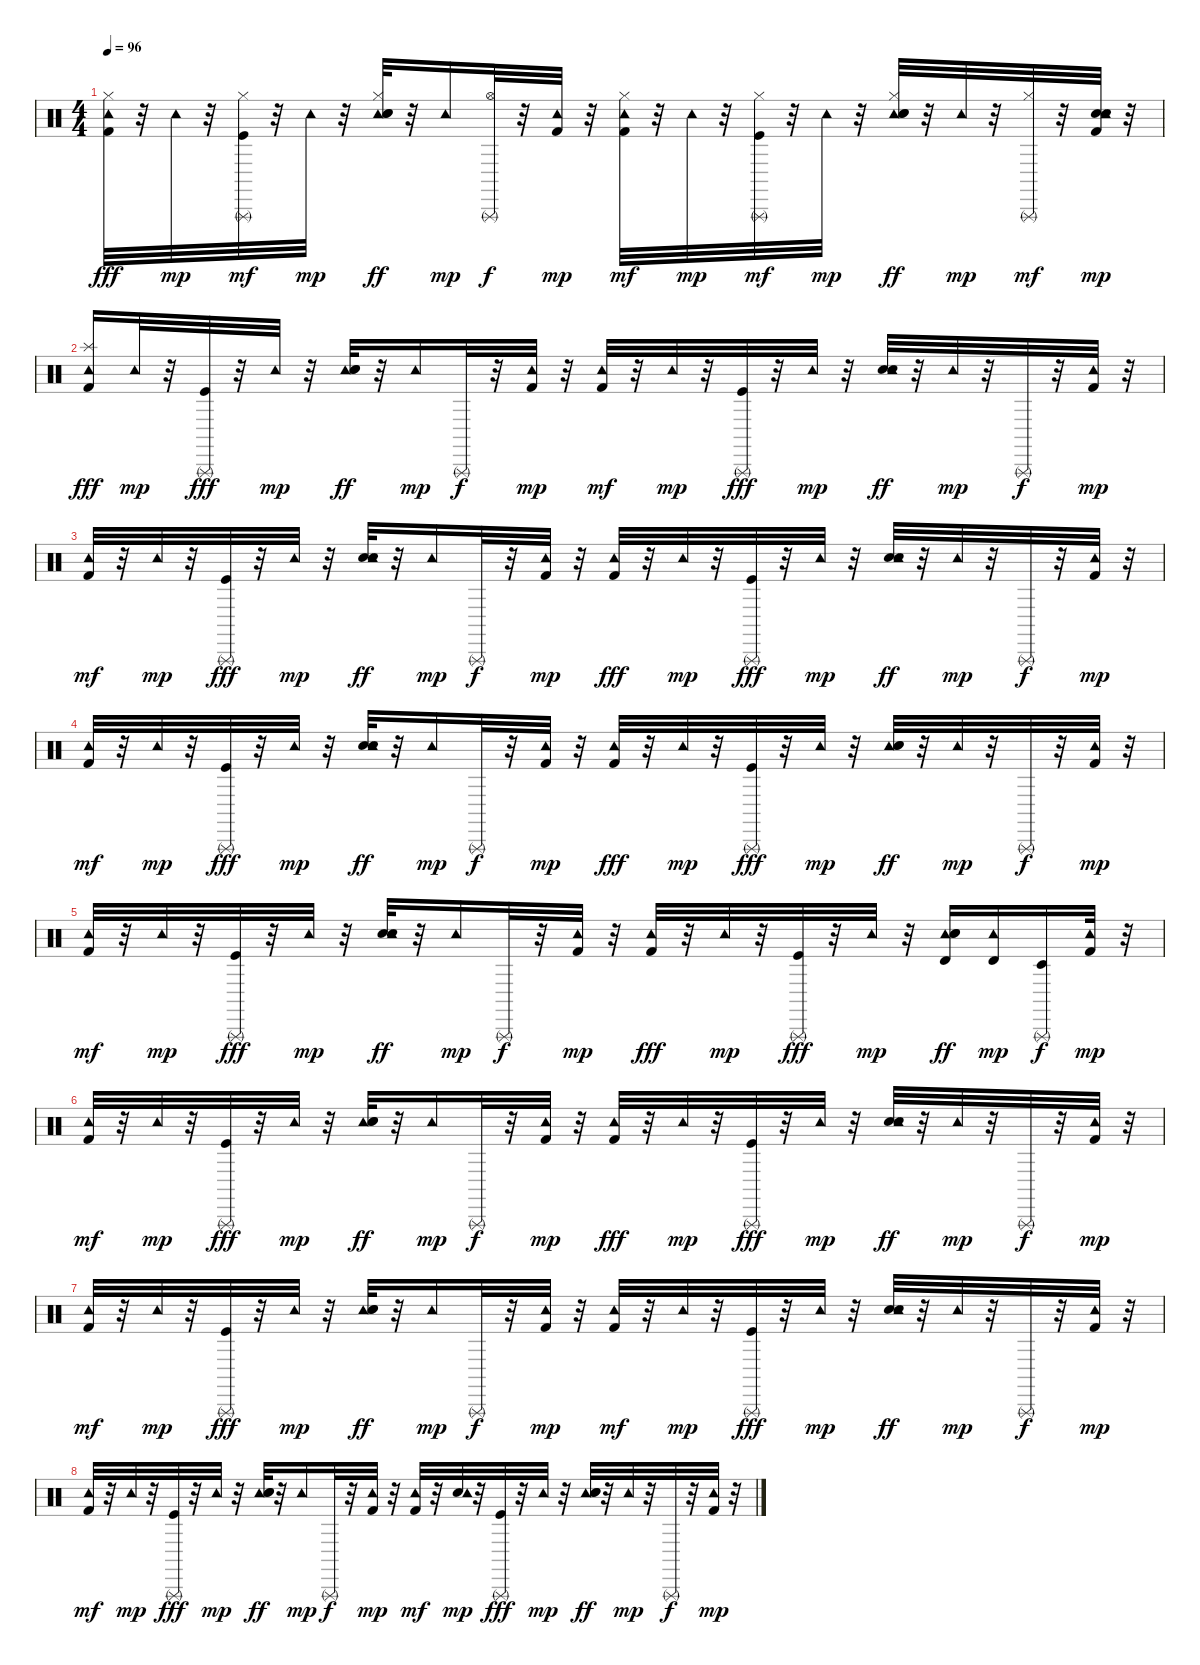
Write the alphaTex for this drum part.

\track "" {instrument percussion}
\staff {score}
\articulation defaults
\ts (4 4)
\tempo 96
\clef neutral
\ks c
("Hi-Hat (closed)" "Tambourine (hit)" "Kick (hit) 2").32{dy fff} r.32 "Tambourine (hit)".32{dy mp} r.32 ("Triangle (rnute)" "Kick (hit)" "Hi-Hat (closed)").32{dy mf} r.32 "Tambourine (hit)".32{dy mp} r.32 ("Tambourine (hit)" "Hi-Hat (closed)" "Electric Snare (hit)" "Hand Clap (hit)").32{dy ff} r.32 "Tambourine (hit)".16{dy mp} ("Hi-Hat (open)" "Triangle (rnute)").32{dy f} r.32 ("Kick (hit) 2" "Tambourine (hit)").32{dy mp} r.32 ("Kick (hit) 2" "Tambourine (hit)" "Hi-Hat (closed)").32{dy mf} r.32 "Tambourine (hit)".32{dy mp} r.32 ("Kick (hit)" "Triangle (rnute)" "Hi-Hat (closed)").32{dy mf} r.32 "Tambourine (hit)".32{dy mp} r.32 ("Tambourine (hit)" "Electric Snare (hit)" "Hi-Hat (closed)" "Hand Clap (hit)").32{dy ff} r.32 "Tambourine (hit)".32{dy mp} r.32 ("Hi-Hat (closed)" "Triangle (rnute)").32{dy mf} r.32 ("Kick (hit) 2" "Electric Snare (hit)" "Hand Clap (hit)" "Tambourine (hit)").32{dy mp} r.32 |
("Tambourine (hit)" "Kick (hit) 2" "Splash (hit)").16{dy fff} "Tambourine (hit)".32{dy mp} r.32 ("Kick (hit)" "Triangle (rnute)").32{dy fff} r.32 "Tambourine (hit)".32{dy mp} r.32 ("Tambourine (hit)" "Electric Snare (hit)" "Hand Clap (hit)").32{dy ff} r.32 "Tambourine (hit)".16{dy mp} "Triangle (rnute)".32{dy f} r.32 ("Tambourine (hit)" "Kick (hit) 2").32{dy mp} r.32 ("Kick (hit) 2" "Tambourine (hit)").32{dy mf} r.32 "Tambourine (hit)".32{dy mp} r.32 ("Triangle (rnute)" "Kick (hit)").32{dy fff} r.32 "Tambourine (hit)".32{dy mp} r.32 ("Electric Snare (hit)" "Tambourine (hit)" "Hand Clap (hit)").32{dy ff} r.32 "Tambourine (hit)".32{dy mp} r.32 "Triangle (rnute)".32{dy f} r.32 ("Tambourine (hit)" "Kick (hit) 2").32{dy mp} r.32 |
("Kick (hit) 2" "Tambourine (hit)").32{dy mf} r.32 "Tambourine (hit)".32{dy mp} r.32 ("Triangle (rnute)" "Kick (hit)").32{dy fff} r.32 "Tambourine (hit)".32{dy mp} r.32 ("Electric Snare (hit)" "Tambourine (hit)" "Hand Clap (hit)").32{dy ff} r.32 "Tambourine (hit)".16{dy mp} "Triangle (rnute)".32{dy f} r.32 ("Kick (hit) 2" "Tambourine (hit)").32{dy mp} r.32 ("Tambourine (hit)" "Kick (hit) 2").32{dy fff} r.32 "Tambourine (hit)".32{dy mp} r.32 ("Triangle (rnute)" "Kick (hit)").32{dy fff} r.32 "Tambourine (hit)".32{dy mp} r.32 ("Electric Snare (hit)" "Tambourine (hit)" "Hand Clap (hit)").32{dy ff} r.32 "Tambourine (hit)".32{dy mp} r.32 "Triangle (rnute)".32{dy f} r.32 ("Kick (hit) 2" "Tambourine (hit)").32{dy mp} r.32 |
("Kick (hit) 2" "Tambourine (hit)").32{dy mf} r.32 "Tambourine (hit)".32{dy mp} r.32 ("Kick (hit)" "Triangle (rnute)").32{dy fff} r.32 "Tambourine (hit)".32{dy mp} r.32 ("Electric Snare (hit)" "Tambourine (hit)" "Hand Clap (hit)").32{dy ff} r.32 "Tambourine (hit)".16{dy mp} "Triangle (rnute)".32{dy f} r.32 ("Kick (hit) 2" "Tambourine (hit)").32{dy mp} r.32 ("Tambourine (hit)" "Kick (hit) 2").32{dy fff} r.32 "Tambourine (hit)".32{dy mp} r.32 ("Kick (hit)" "Triangle (rnute)").32{dy fff} r.32 "Tambourine (hit)".32{dy mp} r.32 ("Tambourine (hit)" "Electric Snare (hit)" "Hand Clap (hit)").32{dy ff} r.32 "Tambourine (hit)".32{dy mp} r.32 "Triangle (rnute)".32{dy f} r.32 ("Kick (hit) 2" "Tambourine (hit)").32{dy mp} r.32 |
("Kick (hit) 2" "Tambourine (hit)").32{dy mf} r.32 "Tambourine (hit)".32{dy mp} r.32 ("Kick (hit)" "Triangle (rnute)").32{dy fff} r.32 "Tambourine (hit)".32{dy mp} r.32 ("Electric Snare (hit)" "Tambourine (hit)" "Hand Clap (hit)").32{dy ff} r.32 "Tambourine (hit)".16{dy mp} "Triangle (rnute)".32{dy f} r.32 ("Kick (hit) 2" "Tambourine (hit)").32{dy mp} r.32 ("Tambourine (hit)" "Kick (hit) 2").32{dy fff} r.32 "Tambourine (hit)".32{dy mp} r.32 ("Triangle (rnute)" "Kick (hit)").32{dy fff} r.32 "Tambourine (hit)".32{dy mp} r.32 ("Tambourine (hit)" "Timbale high (hit)" "Electric Snare (hit)" "Hand Clap (hit)").16{dy ff} ("Timbale high (hit)" "Tambourine (hit)").16{dy mp} ("Timbale low (hit)" "Triangle (rnute)").16{dy f} ("Kick (hit) 2" "Tambourine (hit)").32{dy mp} r.32 |
("Kick (hit) 2" "Tambourine (hit)").32{dy mf} r.32 "Tambourine (hit)".32{dy mp} r.32 ("Kick (hit)" "Triangle (rnute)").32{dy fff} r.32 "Tambourine (hit)".32{dy mp} r.32 ("Tambourine (hit)" "Electric Snare (hit)" "Hand Clap (hit)").32{dy ff} r.32 "Tambourine (hit)".16{dy mp} "Triangle (rnute)".32{dy f} r.32 ("Tambourine (hit)" "Kick (hit) 2").32{dy mp} r.32 ("Tambourine (hit)" "Kick (hit) 2").32{dy fff} r.32 "Tambourine (hit)".32{dy mp} r.32 ("Kick (hit)" "Triangle (rnute)").32{dy fff} r.32 "Tambourine (hit)".32{dy mp} r.32 ("Electric Snare (hit)" "Tambourine (hit)" "Hand Clap (hit)").32{dy ff} r.32 "Tambourine (hit)".32{dy mp} r.32 "Triangle (rnute)".32{dy f} r.32 ("Kick (hit) 2" "Tambourine (hit)").32{dy mp} r.32 |
("Kick (hit) 2" "Tambourine (hit)").32{dy mf} r.32 "Tambourine (hit)".32{dy mp} r.32 ("Kick (hit)" "Triangle (rnute)").32{dy fff} r.32 "Tambourine (hit)".32{dy mp} r.32 ("Tambourine (hit)" "Electric Snare (hit)" "Hand Clap (hit)").32{dy ff} r.32 "Tambourine (hit)".16{dy mp} "Triangle (rnute)".32{dy f} r.32 ("Tambourine (hit)" "Kick (hit) 2").32{dy mp} r.32 ("Kick (hit) 2" "Tambourine (hit)").32{dy mf} r.32 "Tambourine (hit)".32{dy mp} r.32 ("Triangle (rnute)" "Kick (hit)").32{dy fff} r.32 "Tambourine (hit)".32{dy mp} r.32 ("Electric Snare (hit)" "Tambourine (hit)" "Hand Clap (hit)").32{dy ff} r.32 "Tambourine (hit)".32{dy mp} r.32 "Triangle (rnute)".32{dy f} r.32 ("Tambourine (hit)" "Kick (hit) 2").32{dy mp} r.32 |
("Kick (hit) 2" "Tambourine (hit)").32{dy mf} r.32 "Tambourine (hit)".32{dy mp} r.32 ("Kick (hit)" "Triangle (rnute)").32{dy fff} r.32 "Tambourine (hit)".32{dy mp} r.32 ("Tambourine (hit)" "Electric Snare (hit)" "Hand Clap (hit)").32{dy ff} r.32 "Tambourine (hit)".16{dy mp} "Triangle (rnute)".32{dy f} r.32 ("Tambourine (hit)" "Kick (hit) 2").32{dy mp} r.32 ("Kick (hit) 2" "Tambourine (hit)").32{dy mf} r.32 ("Electric Snare (hit)" "Tambourine (hit)").32{dy mp} r.32 ("Kick (hit)" "Triangle (rnute)").32{dy fff} r.32 "Tambourine (hit)".32{dy mp} r.32 ("Tambourine (hit)" "Electric Snare (hit)" "Hand Clap (hit)").32{dy ff} r.32 "Tambourine (hit)".32{dy mp} r.32 "Triangle (rnute)".32{dy f} r.32 ("Tambourine (hit)" "Kick (hit) 2").32{dy mp} r.32
